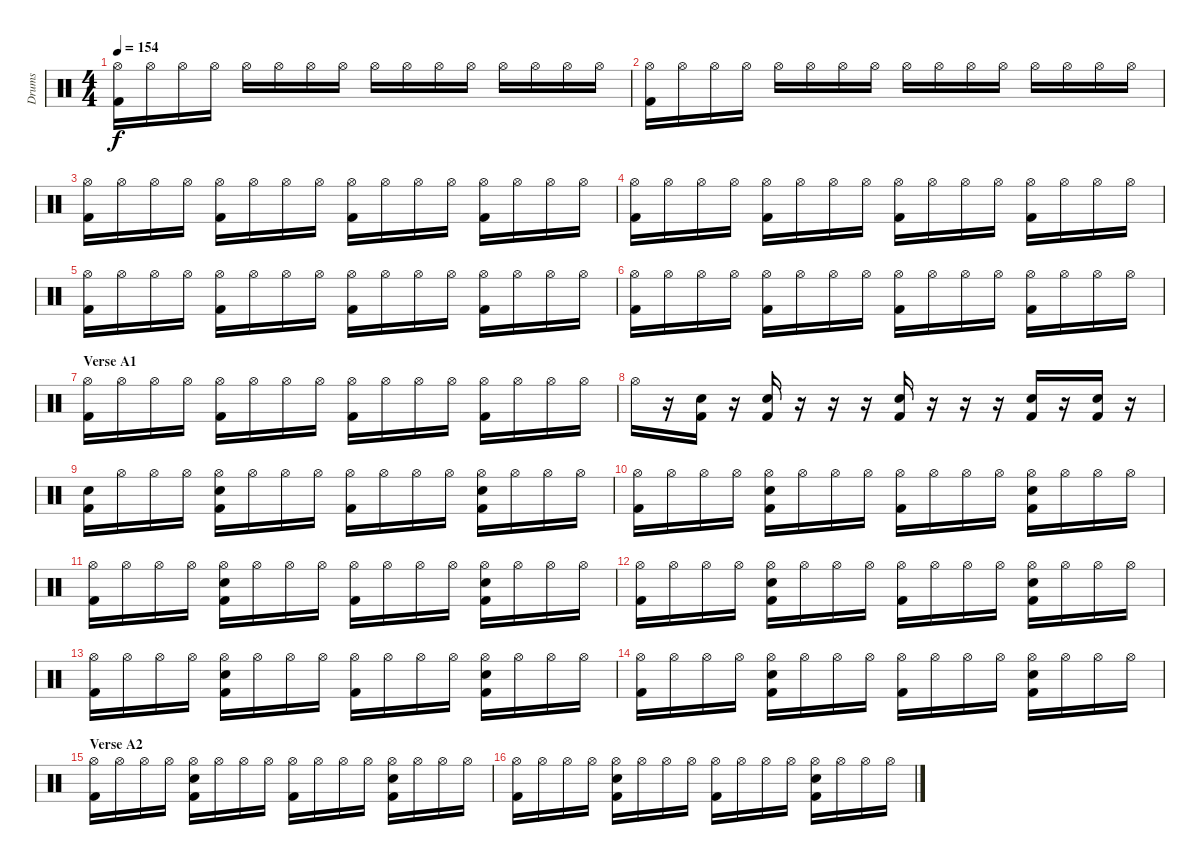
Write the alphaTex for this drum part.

\track ("Drums" "Drums") {instrument percussion}
\staff {score}
\articulation defaults
\ts (4 4)
\tempo 154
\clef neutral
\ks c
("Hi-Hat (open)" "Kick (hit) 2").16{dy f} "Hi-Hat (open)".16 "Hi-Hat (open)".16 "Hi-Hat (open)".16 "Hi-Hat (open)".16 "Hi-Hat (open)".16 "Hi-Hat (open)".16 "Hi-Hat (open)".16 "Hi-Hat (open)".16 "Hi-Hat (open)".16 "Hi-Hat (open)".16 "Hi-Hat (open)".16 "Hi-Hat (open)".16 "Hi-Hat (open)".16 "Hi-Hat (open)".16 "Hi-Hat (open)".16 |
("Hi-Hat (open)" "Kick (hit) 2").16 "Hi-Hat (open)".16 "Hi-Hat (open)".16 "Hi-Hat (open)".16 "Hi-Hat (open)".16 "Hi-Hat (open)".16 "Hi-Hat (open)".16 "Hi-Hat (open)".16 "Hi-Hat (open)".16 "Hi-Hat (open)".16 "Hi-Hat (open)".16 "Hi-Hat (open)".16 "Hi-Hat (open)".16 "Hi-Hat (open)".16 "Hi-Hat (open)".16 "Hi-Hat (open)".16 |
("Hi-Hat (open)" "Kick (hit) 2").16 "Hi-Hat (open)".16 "Hi-Hat (open)".16 "Hi-Hat (open)".16 ("Hi-Hat (open)" "Kick (hit) 2").16 "Hi-Hat (open)".16 "Hi-Hat (open)".16 "Hi-Hat (open)".16 ("Hi-Hat (open)" "Kick (hit) 2").16 "Hi-Hat (open)".16 "Hi-Hat (open)".16 "Hi-Hat (open)".16 ("Hi-Hat (open)" "Kick (hit) 2").16 "Hi-Hat (open)".16 "Hi-Hat (open)".16 "Hi-Hat (open)".16 |
("Hi-Hat (open)" "Kick (hit) 2").16 "Hi-Hat (open)".16 "Hi-Hat (open)".16 "Hi-Hat (open)".16 ("Hi-Hat (open)" "Kick (hit) 2").16 "Hi-Hat (open)".16 "Hi-Hat (open)".16 "Hi-Hat (open)".16 ("Hi-Hat (open)" "Kick (hit) 2").16 "Hi-Hat (open)".16 "Hi-Hat (open)".16 "Hi-Hat (open)".16 ("Hi-Hat (open)" "Kick (hit) 2").16 "Hi-Hat (open)".16 "Hi-Hat (open)".16 "Hi-Hat (open)".16 |
("Hi-Hat (open)" "Kick (hit) 2").16 "Hi-Hat (open)".16 "Hi-Hat (open)".16 "Hi-Hat (open)".16 ("Hi-Hat (open)" "Kick (hit) 2").16 "Hi-Hat (open)".16 "Hi-Hat (open)".16 "Hi-Hat (open)".16 ("Hi-Hat (open)" "Kick (hit) 2").16 "Hi-Hat (open)".16 "Hi-Hat (open)".16 "Hi-Hat (open)".16 ("Hi-Hat (open)" "Kick (hit) 2").16 "Hi-Hat (open)".16 "Hi-Hat (open)".16 "Hi-Hat (open)".16 |
("Hi-Hat (open)" "Kick (hit) 2").16 "Hi-Hat (open)".16 "Hi-Hat (open)".16 "Hi-Hat (open)".16 ("Hi-Hat (open)" "Kick (hit) 2").16 "Hi-Hat (open)".16 "Hi-Hat (open)".16 "Hi-Hat (open)".16 ("Hi-Hat (open)" "Kick (hit) 2").16 "Hi-Hat (open)".16 "Hi-Hat (open)".16 "Hi-Hat (open)".16 ("Hi-Hat (open)" "Kick (hit) 2").16 "Hi-Hat (open)".16 "Hi-Hat (open)".16 "Hi-Hat (open)".16 |
\section ("" "Verse A1")
("Hi-Hat (open)" "Kick (hit) 2").16 "Hi-Hat (open)".16 "Hi-Hat (open)".16 "Hi-Hat (open)".16 ("Hi-Hat (open)" "Kick (hit) 2").16 "Hi-Hat (open)".16 "Hi-Hat (open)".16 "Hi-Hat (open)".16 ("Hi-Hat (open)" "Kick (hit) 2").16 "Hi-Hat (open)".16 "Hi-Hat (open)".16 "Hi-Hat (open)".16 ("Hi-Hat (open)" "Kick (hit) 2").16 "Hi-Hat (open)".16 "Hi-Hat (open)".16 "Hi-Hat (open)".16 |
"Hi-Hat (open)".16 r.16 ("Snare (hit) 2" "Kick (hit) 2").16 r.16 ("Snare (hit) 2" "Kick (hit) 2").16 r.16 r.16 r.16 ("Snare (hit) 2" "Kick (hit) 2").16 r.16 r.16 r.16 ("Snare (hit) 2" "Kick (hit) 2").16 r.16 ("Snare (hit) 2" "Kick (hit) 2").16 r.16 |
("Snare (hit) 2" "Kick (hit) 2").16 "Hi-Hat (open)".16 "Hi-Hat (open)".16 "Hi-Hat (open)".16 ("Hi-Hat (open)" "Snare (hit) 2" "Kick (hit) 2").16 "Hi-Hat (open)".16 "Hi-Hat (open)".16 "Hi-Hat (open)".16 ("Hi-Hat (open)" "Kick (hit) 2").16 "Hi-Hat (open)".16 "Hi-Hat (open)".16 "Hi-Hat (open)".16 ("Hi-Hat (open)" "Snare (hit) 2" "Kick (hit) 2").16 "Hi-Hat (open)".16 "Hi-Hat (open)".16 "Hi-Hat (open)".16 |
("Hi-Hat (open)" "Kick (hit) 2").16 "Hi-Hat (open)".16 "Hi-Hat (open)".16 "Hi-Hat (open)".16 ("Hi-Hat (open)" "Snare (hit) 2" "Kick (hit) 2").16 "Hi-Hat (open)".16 "Hi-Hat (open)".16 "Hi-Hat (open)".16 ("Hi-Hat (open)" "Kick (hit) 2").16 "Hi-Hat (open)".16 "Hi-Hat (open)".16 "Hi-Hat (open)".16 ("Hi-Hat (open)" "Snare (hit) 2" "Kick (hit) 2").16 "Hi-Hat (open)".16 "Hi-Hat (open)".16 "Hi-Hat (open)".16 |
("Hi-Hat (open)" "Kick (hit) 2").16 "Hi-Hat (open)".16 "Hi-Hat (open)".16 "Hi-Hat (open)".16 ("Hi-Hat (open)" "Snare (hit) 2" "Kick (hit) 2").16 "Hi-Hat (open)".16 "Hi-Hat (open)".16 "Hi-Hat (open)".16 ("Hi-Hat (open)" "Kick (hit) 2").16 "Hi-Hat (open)".16 "Hi-Hat (open)".16 "Hi-Hat (open)".16 ("Hi-Hat (open)" "Snare (hit) 2" "Kick (hit) 2").16 "Hi-Hat (open)".16 "Hi-Hat (open)".16 "Hi-Hat (open)".16 |
("Hi-Hat (open)" "Kick (hit) 2").16 "Hi-Hat (open)".16 "Hi-Hat (open)".16 "Hi-Hat (open)".16 ("Hi-Hat (open)" "Snare (hit) 2" "Kick (hit) 2").16 "Hi-Hat (open)".16 "Hi-Hat (open)".16 "Hi-Hat (open)".16 ("Hi-Hat (open)" "Kick (hit) 2").16 "Hi-Hat (open)".16 "Hi-Hat (open)".16 "Hi-Hat (open)".16 ("Hi-Hat (open)" "Snare (hit) 2" "Kick (hit) 2").16 "Hi-Hat (open)".16 "Hi-Hat (open)".16 "Hi-Hat (open)".16 |
("Hi-Hat (open)" "Kick (hit) 2").16 "Hi-Hat (open)".16 "Hi-Hat (open)".16 "Hi-Hat (open)".16 ("Hi-Hat (open)" "Snare (hit) 2" "Kick (hit) 2").16 "Hi-Hat (open)".16 "Hi-Hat (open)".16 "Hi-Hat (open)".16 ("Hi-Hat (open)" "Kick (hit) 2").16 "Hi-Hat (open)".16 "Hi-Hat (open)".16 "Hi-Hat (open)".16 ("Hi-Hat (open)" "Snare (hit) 2" "Kick (hit) 2").16 "Hi-Hat (open)".16 "Hi-Hat (open)".16 "Hi-Hat (open)".16 |
("Hi-Hat (open)" "Kick (hit) 2").16 "Hi-Hat (open)".16 "Hi-Hat (open)".16 "Hi-Hat (open)".16 ("Hi-Hat (open)" "Snare (hit) 2" "Kick (hit) 2").16 "Hi-Hat (open)".16 "Hi-Hat (open)".16 "Hi-Hat (open)".16 ("Hi-Hat (open)" "Kick (hit) 2").16 "Hi-Hat (open)".16 "Hi-Hat (open)".16 "Hi-Hat (open)".16 ("Hi-Hat (open)" "Snare (hit) 2" "Kick (hit) 2").16 "Hi-Hat (open)".16 "Hi-Hat (open)".16 "Hi-Hat (open)".16 |
\section ("" "Verse A2")
("Hi-Hat (open)" "Kick (hit) 2").16 "Hi-Hat (open)".16 "Hi-Hat (open)".16 "Hi-Hat (open)".16 ("Hi-Hat (open)" "Snare (hit) 2" "Kick (hit) 2").16 "Hi-Hat (open)".16 "Hi-Hat (open)".16 "Hi-Hat (open)".16 ("Hi-Hat (open)" "Kick (hit) 2").16 "Hi-Hat (open)".16 "Hi-Hat (open)".16 "Hi-Hat (open)".16 ("Hi-Hat (open)" "Snare (hit) 2" "Kick (hit) 2").16 "Hi-Hat (open)".16 "Hi-Hat (open)".16 "Hi-Hat (open)".16 |
("Hi-Hat (open)" "Kick (hit) 2").16 "Hi-Hat (open)".16 "Hi-Hat (open)".16 "Hi-Hat (open)".16 ("Hi-Hat (open)" "Snare (hit) 2" "Kick (hit) 2").16 "Hi-Hat (open)".16 "Hi-Hat (open)".16 "Hi-Hat (open)".16 ("Hi-Hat (open)" "Kick (hit) 2").16 "Hi-Hat (open)".16 "Hi-Hat (open)".16 "Hi-Hat (open)".16 ("Hi-Hat (open)" "Snare (hit) 2" "Kick (hit) 2").16 "Hi-Hat (open)".16 "Hi-Hat (open)".16 "Hi-Hat (open)".16
